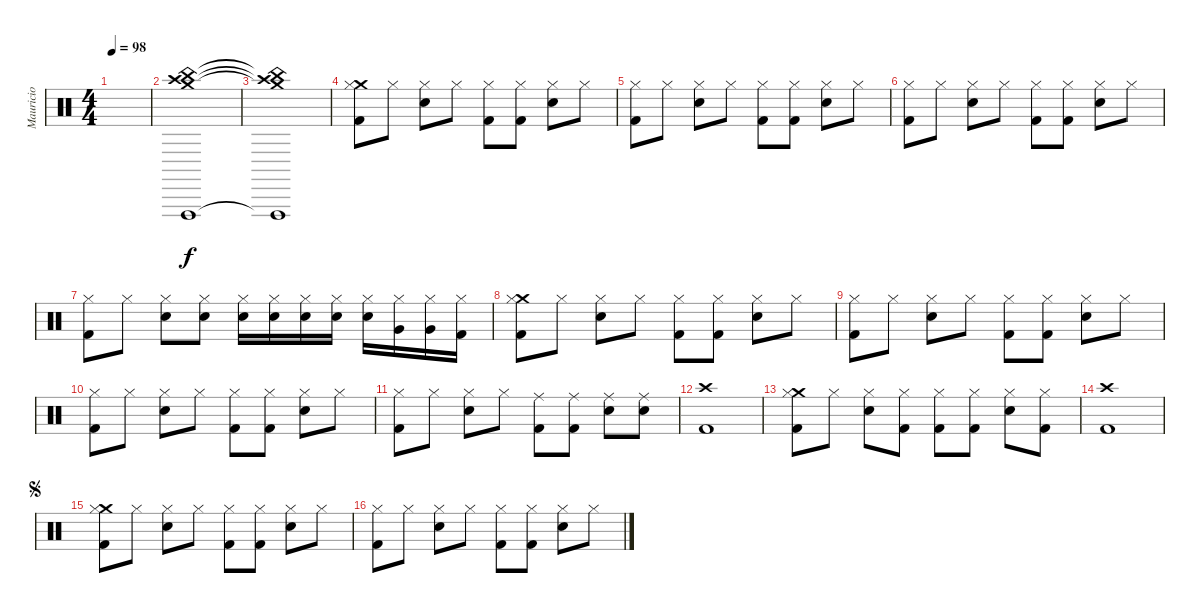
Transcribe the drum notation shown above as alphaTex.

\track ("Mauricio" "Mauricio") {instrument percussion}
\staff {score}
\articulation defaults
\ts (4 4)
\tempo 98
\clef neutral
\ks c
|
("Crash medium (hit)" "Vibraslap (hit)" "China (hit)" "Crash high (hit)").1 |
("Crash medium (hit)"{t} "Vibraslap (hit)"{t} "China (hit)"{t} "Crash high (hit)"{t}).1 |
("Crash medium (hit)" "Hi-Hat (closed)" "Kick (hit) 2").8 "Hi-Hat (closed)".8 ("Hi-Hat (closed)" "Snare (hit) 2").8 "Hi-Hat (closed)".8 ("Hi-Hat (closed)" "Kick (hit) 2").8 ("Hi-Hat (closed)" "Kick (hit) 2").8 ("Hi-Hat (closed)" "Snare (hit) 2").8 "Hi-Hat (closed)".8 |
("Hi-Hat (closed)" "Kick (hit) 2").8 "Hi-Hat (closed)".8 ("Hi-Hat (closed)" "Snare (hit) 2").8 "Hi-Hat (closed)".8 ("Hi-Hat (closed)" "Kick (hit) 2").8 ("Hi-Hat (closed)" "Kick (hit) 2").8 ("Hi-Hat (closed)" "Snare (hit) 2").8 "Hi-Hat (closed)".8 |
("Hi-Hat (closed)" "Kick (hit) 2").8 "Hi-Hat (closed)".8 ("Hi-Hat (closed)" "Snare (hit) 2").8 "Hi-Hat (closed)".8 ("Hi-Hat (closed)" "Kick (hit) 2").8 ("Hi-Hat (closed)" "Kick (hit) 2").8 ("Hi-Hat (closed)" "Snare (hit) 2").8 "Hi-Hat (closed)".8 |
("Hi-Hat (closed)" "Kick (hit) 2").8 "Hi-Hat (closed)".8 ("Hi-Hat (closed)" "Snare (hit) 2").8 ("Hi-Hat (closed)" "Snare (hit) 2").8 ("Hi-Hat (closed)" "Snare (hit) 2").16 ("Hi-Hat (closed)" "Snare (hit) 2").16 ("Hi-Hat (closed)" "Snare (hit) 2").16 ("Hi-Hat (closed)" "Snare (hit) 2").16 ("Hi-Hat (closed)" "Snare (hit) 2").16 ("Hi-Hat (closed)" "Very Low Tom (hit)").16 ("Hi-Hat (closed)" "Very Low Tom (hit)").16 ("Hi-Hat (closed)" "Kick (hit) 2").16 |
("Crash medium (hit)" "Hi-Hat (closed)" "Kick (hit) 2").8 "Hi-Hat (closed)".8 ("Hi-Hat (closed)" "Snare (hit) 2").8 "Hi-Hat (closed)".8 ("Hi-Hat (closed)" "Kick (hit) 2").8 ("Hi-Hat (closed)" "Kick (hit) 2").8 ("Hi-Hat (closed)" "Snare (hit) 2").8 "Hi-Hat (closed)".8 |
("Hi-Hat (closed)" "Kick (hit) 2").8 "Hi-Hat (closed)".8 ("Hi-Hat (closed)" "Snare (hit) 2").8 "Hi-Hat (closed)".8 ("Hi-Hat (closed)" "Kick (hit) 2").8 ("Hi-Hat (closed)" "Kick (hit) 2").8 ("Hi-Hat (closed)" "Snare (hit) 2").8 "Hi-Hat (closed)".8 |
("Hi-Hat (closed)" "Kick (hit) 2").8 "Hi-Hat (closed)".8 ("Hi-Hat (closed)" "Snare (hit) 2").8 "Hi-Hat (closed)".8 ("Hi-Hat (closed)" "Kick (hit) 2").8 ("Hi-Hat (closed)" "Kick (hit) 2").8 ("Hi-Hat (closed)" "Snare (hit) 2").8 "Hi-Hat (closed)".8 |
("Hi-Hat (closed)" "Kick (hit) 2").8 "Hi-Hat (closed)".8 ("Hi-Hat (closed)" "Snare (hit) 2").8 "Hi-Hat (closed)".8 ("Ride (middle)" "Kick (hit) 2").8 ("Ride (middle)" "Kick (hit) 2").8 ("Ride (middle)" "Snare (hit) 2").8 ("Ride (middle)" "Snare (hit) 2").8 |
("Crash high (hit)" "Kick (hit) 2").1 |
("Crash medium (hit)" "Hi-Hat (closed)" "Kick (hit) 2").8 "Hi-Hat (closed)".8 ("Hi-Hat (closed)" "Snare (hit) 2").8 ("Hi-Hat (closed)" "Kick (hit) 2").8 ("Hi-Hat (closed)" "Kick (hit) 2").8 ("Hi-Hat (closed)" "Kick (hit) 2").8 ("Hi-Hat (closed)" "Snare (hit) 2").8 ("Hi-Hat (closed)" "Kick (hit) 2").8 |
("Crash high (hit)" "Kick (hit) 2").1 |
\jump segno
("Crash medium (hit)" "Hi-Hat (closed)" "Kick (hit) 2").8 "Hi-Hat (closed)".8 ("Hi-Hat (closed)" "Snare (hit) 2").8 "Hi-Hat (closed)".8 ("Hi-Hat (closed)" "Kick (hit) 2").8 ("Hi-Hat (closed)" "Kick (hit) 2").8 ("Hi-Hat (closed)" "Snare (hit) 2").8 "Hi-Hat (closed)".8 |
("Hi-Hat (closed)" "Kick (hit) 2").8 "Hi-Hat (closed)".8 ("Hi-Hat (closed)" "Snare (hit) 2").8 "Hi-Hat (closed)".8 ("Hi-Hat (closed)" "Kick (hit) 2").8 ("Hi-Hat (closed)" "Kick (hit) 2").8 ("Hi-Hat (closed)" "Snare (hit) 2").8 "Hi-Hat (closed)".8
